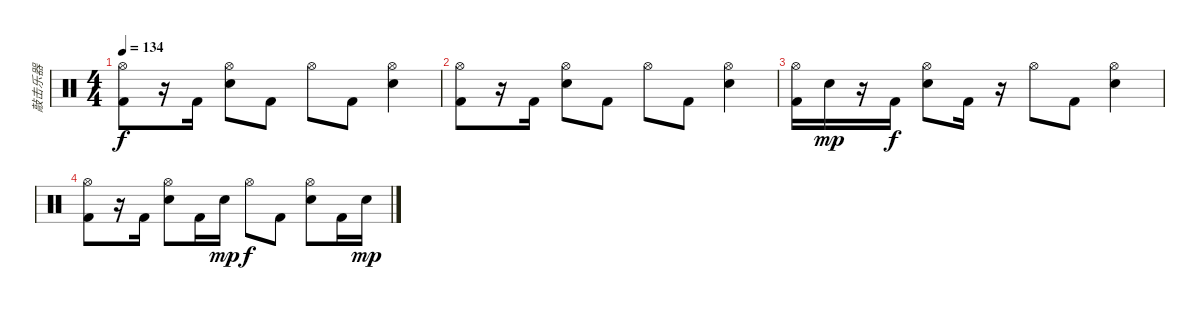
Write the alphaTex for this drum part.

\track ("敲击乐器" "敲击乐器") {instrument percussion}
\staff {score}
\articulation defaults
\ts (4 4)
\tempo 134
\clef neutral
\ks c
("Hi-Hat (open)" "Kick (hit) 2").8{dy f} r.16 "Kick (hit) 2".16 ("Hi-Hat (open)" "Electric Snare (hit)").8 "Kick (hit) 2".8 "Hi-Hat (open)".8 "Kick (hit) 2".8 ("Hi-Hat (open)" "Electric Snare (hit)").4 |
("Hi-Hat (open)" "Kick (hit) 2").8 r.16 "Kick (hit) 2".16 ("Hi-Hat (open)" "Electric Snare (hit)").8 "Kick (hit) 2".8 "Hi-Hat (open)".8 "Kick (hit) 2".8 ("Hi-Hat (open)" "Electric Snare (hit)").4 |
("Hi-Hat (open)" "Kick (hit) 2").16 "Electric Snare (hit)".16{dy mp} r.16 "Kick (hit) 2".16{dy f} ("Hi-Hat (open)" "Electric Snare (hit)").8 "Kick (hit) 2".16 r.16 "Hi-Hat (open)".8 "Kick (hit) 2".8 ("Hi-Hat (open)" "Electric Snare (hit)").4 |
("Hi-Hat (open)" "Kick (hit) 2").8 r.16 "Kick (hit) 2".16 ("Hi-Hat (open)" "Electric Snare (hit)").8 "Kick (hit) 2".16 "Electric Snare (hit)".16{dy mp} "Hi-Hat (open)".8{dy f} "Kick (hit) 2".8 ("Hi-Hat (open)" "Electric Snare (hit)").8 "Kick (hit) 2".16 "Electric Snare (hit)".16{dy mp}
